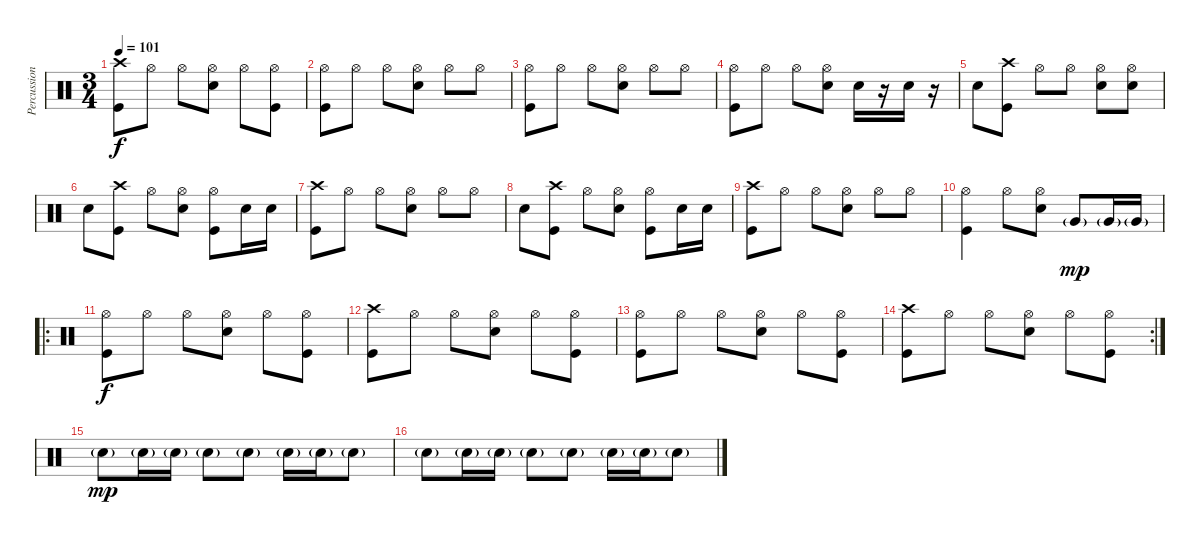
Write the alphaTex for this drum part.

\track ("Percussion" "Percussion") {instrument percussion}
\staff {score}
\articulation defaults
\ts (3 4)
\tempo 101
\clef neutral
\ks c
("Crash high (hit)" "Kick (hit)").8{dy f} "Hi-Hat (open)".8 "Hi-Hat (open)".8 ("Hi-Hat (open)" "Snare (hit) 2").8 "Hi-Hat (open)".8 ("Hi-Hat (open)" "Kick (hit)").8 |
("Hi-Hat (open)" "Kick (hit)").8 "Hi-Hat (open)".8 "Hi-Hat (open)".8 ("Hi-Hat (open)" "Snare (hit) 2").8 "Hi-Hat (open)".8 "Hi-Hat (open)".8 |
("Hi-Hat (open)" "Kick (hit)").8 "Hi-Hat (open)".8 "Hi-Hat (open)".8 ("Hi-Hat (open)" "Snare (hit) 2").8 "Hi-Hat (open)".8 "Hi-Hat (open)".8 |
("Hi-Hat (open)" "Kick (hit)").8 "Hi-Hat (open)".8 "Hi-Hat (open)".8 ("Hi-Hat (open)" "Snare (hit) 2").8 "Snare (hit) 2".16 r.16 "Snare (hit) 2".16 r.16 |
"Snare (hit) 2".8 ("Crash high (hit)" "Kick (hit)").8 "Hi-Hat (open)".8 "Hi-Hat (open)".8 ("Hi-Hat (open)" "Snare (hit) 2").8 ("Hi-Hat (open)" "Snare (hit) 2").8 |
"Snare (hit) 2".8 ("Crash high (hit)" "Kick (hit)").8 "Hi-Hat (open)".8 ("Hi-Hat (open)" "Snare (hit) 2").8 ("Hi-Hat (open)" "Kick (hit)").8 "Snare (hit) 2".16 "Snare (hit) 2".16 |
("Crash high (hit)" "Kick (hit)").8 "Hi-Hat (open)".8 "Hi-Hat (open)".8 ("Hi-Hat (open)" "Snare (hit) 2").8 "Hi-Hat (open)".8 "Hi-Hat (open)".8 |
"Snare (hit) 2".8 ("Crash high (hit)" "Kick (hit)").8 "Hi-Hat (open)".8 ("Hi-Hat (open)" "Snare (hit) 2").8 ("Hi-Hat (open)" "Kick (hit)").8 "Snare (hit) 2".16 "Snare (hit) 2".16 |
("Crash high (hit)" "Kick (hit)").8 "Hi-Hat (open)".8 "Hi-Hat (open)".8 ("Hi-Hat (open)" "Snare (hit) 2").8 "Hi-Hat (open)".8 "Hi-Hat (open)".8 |
("Hi-Hat (open)" "Kick (hit)").4 "Hi-Hat (open)".8 ("Hi-Hat (open)" "Snare (hit) 2").8 "Very Low Tom (hit)"{g}.8{dy mp} "Very Low Tom (hit)"{g}.16 "Very Low Tom (hit)"{g}.16 |
\ro
("Hi-Hat (open)" "Kick (hit)").8{dy f} "Hi-Hat (open)".8 "Hi-Hat (open)".8 ("Hi-Hat (open)" "Snare (hit) 2").8 "Hi-Hat (open)".8 ("Hi-Hat (open)" "Kick (hit)").8 |
("Crash high (hit)" "Kick (hit)").8 "Hi-Hat (open)".8 "Hi-Hat (open)".8 ("Hi-Hat (open)" "Snare (hit) 2").8 "Hi-Hat (open)".8 ("Hi-Hat (open)" "Kick (hit)").8 |
("Hi-Hat (open)" "Kick (hit)").8 "Hi-Hat (open)".8 "Hi-Hat (open)".8 ("Hi-Hat (open)" "Snare (hit) 2").8 "Hi-Hat (open)".8 ("Hi-Hat (open)" "Kick (hit)").8 |
\rc 2
("Crash high (hit)" "Kick (hit)").8 "Hi-Hat (open)".8 "Hi-Hat (open)".8 ("Hi-Hat (open)" "Snare (hit) 2").8 "Hi-Hat (open)".8 ("Hi-Hat (open)" "Kick (hit)").8 |
"Snare (hit) 2"{g}.8{dy mp} "Snare (hit) 2"{g}.16 "Snare (hit) 2"{g}.16 "Snare (hit) 2"{g}.8 "Snare (hit) 2"{g}.8 "Snare (hit) 2"{g}.16 "Snare (hit) 2"{g}.16 "Snare (hit) 2"{g}.8 |
"Snare (hit) 2"{g}.8 "Snare (hit) 2"{g}.16 "Snare (hit) 2"{g}.16 "Snare (hit) 2"{g}.8 "Snare (hit) 2"{g}.8 "Snare (hit) 2"{g}.16 "Snare (hit) 2"{g}.16 "Snare (hit) 2"{g}.8
